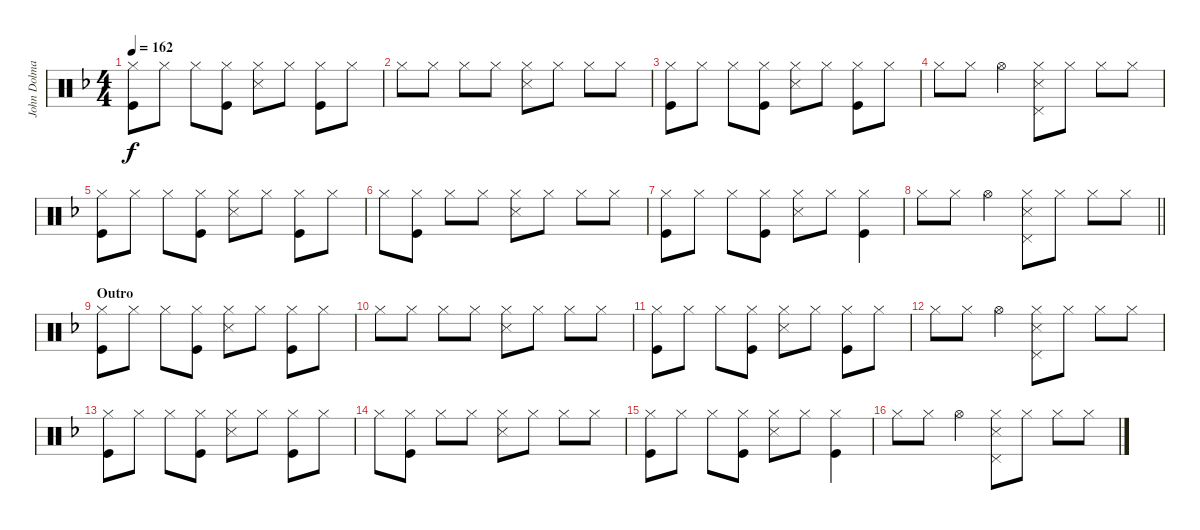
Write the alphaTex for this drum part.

\track ("John Dolmayan" "John Dolma") {instrument percussion}
\staff {score}
\articulation defaults
\ts (4 4)
\tempo 162
\clef neutral
\ks dminor
("Hi-Hat (closed)" "Kick (hit)").8{dy f} "Hi-Hat (closed)".8 "Hi-Hat (closed)".8 ("Hi-Hat (closed)" "Kick (hit)").8 ("Hi-Hat (closed)" "Snare (side stick) 3").8 "Hi-Hat (closed)".8 ("Hi-Hat (closed)" "Kick (hit)").8 "Hi-Hat (closed)".8 |
"Hi-Hat (closed)".8 "Hi-Hat (closed)".8 "Hi-Hat (closed)".8 "Hi-Hat (closed)".8 ("Hi-Hat (closed)" "Snare (side stick) 3").8 "Hi-Hat (closed)".8 "Hi-Hat (closed)".8 "Hi-Hat (closed)".8 |
("Hi-Hat (closed)" "Kick (hit)").8 "Hi-Hat (closed)".8 "Hi-Hat (closed)".8 ("Hi-Hat (closed)" "Kick (hit)").8 ("Hi-Hat (closed)" "Snare (side stick) 3").8 "Hi-Hat (closed)".8 ("Hi-Hat (closed)" "Kick (hit)").8 "Hi-Hat (closed)".8 |
"Hi-Hat (closed)".8 "Hi-Hat (closed)".8 "Hi-Hat (open)".4 ("Hi-Hat (closed)" "Pedal Hi-Hat (hit)" "Snare (side stick) 3").8 "Hi-Hat (closed)".8 "Hi-Hat (closed)".8 "Hi-Hat (closed)".8 |
("Hi-Hat (closed)" "Kick (hit)").8 "Hi-Hat (closed)".8 "Hi-Hat (closed)".8 ("Hi-Hat (closed)" "Kick (hit)").8 ("Hi-Hat (closed)" "Snare (side stick) 3").8 "Hi-Hat (closed)".8 ("Hi-Hat (closed)" "Kick (hit)").8 "Hi-Hat (closed)".8 |
"Hi-Hat (closed)".8 ("Hi-Hat (closed)" "Kick (hit)").8 "Hi-Hat (closed)".8 "Hi-Hat (closed)".8 ("Hi-Hat (closed)" "Snare (side stick) 3").8 "Hi-Hat (closed)".8 "Hi-Hat (closed)".8 "Hi-Hat (closed)".8 |
("Hi-Hat (closed)" "Kick (hit)").8 "Hi-Hat (closed)".8 "Hi-Hat (closed)".8 ("Hi-Hat (closed)" "Kick (hit)").8 ("Hi-Hat (closed)" "Snare (side stick) 3").8 "Hi-Hat (closed)".8 ("Hi-Hat (closed)" "Kick (hit)").4 |
\barLineRight lightlight "Hi-Hat (closed)".8 "Hi-Hat (closed)".8 "Hi-Hat (open)".4
("Hi-Hat (closed)" "Pedal Hi-Hat (hit)" "Snare (side stick) 3").8 "Hi-Hat (closed)".8 "Hi-Hat (closed)".8 "Hi-Hat (closed)".8 |
\section ("" "Outro")
("Hi-Hat (closed)" "Kick (hit)").8 "Hi-Hat (closed)".8 "Hi-Hat (closed)".8 ("Hi-Hat (closed)" "Kick (hit)").8 ("Hi-Hat (closed)" "Snare (side stick) 3").8 "Hi-Hat (closed)".8 ("Hi-Hat (closed)" "Kick (hit)").8 "Hi-Hat (closed)".8 |
"Hi-Hat (closed)".8 "Hi-Hat (closed)".8 "Hi-Hat (closed)".8 "Hi-Hat (closed)".8 ("Hi-Hat (closed)" "Snare (side stick) 3").8 "Hi-Hat (closed)".8 "Hi-Hat (closed)".8 "Hi-Hat (closed)".8 |
("Hi-Hat (closed)" "Kick (hit)").8 "Hi-Hat (closed)".8 "Hi-Hat (closed)".8 ("Hi-Hat (closed)" "Kick (hit)").8 ("Hi-Hat (closed)" "Snare (side stick) 3").8 "Hi-Hat (closed)".8 ("Hi-Hat (closed)" "Kick (hit)").8 "Hi-Hat (closed)".8 |
"Hi-Hat (closed)".8 "Hi-Hat (closed)".8 "Hi-Hat (open)".4 ("Hi-Hat (closed)" "Pedal Hi-Hat (hit)" "Snare (side stick) 3").8 "Hi-Hat (closed)".8 "Hi-Hat (closed)".8 "Hi-Hat (closed)".8 |
("Hi-Hat (closed)" "Kick (hit)").8 "Hi-Hat (closed)".8 "Hi-Hat (closed)".8 ("Hi-Hat (closed)" "Kick (hit)").8 ("Hi-Hat (closed)" "Snare (side stick) 3").8 "Hi-Hat (closed)".8 ("Hi-Hat (closed)" "Kick (hit)").8 "Hi-Hat (closed)".8 |
"Hi-Hat (closed)".8 ("Hi-Hat (closed)" "Kick (hit)").8 "Hi-Hat (closed)".8 "Hi-Hat (closed)".8 ("Hi-Hat (closed)" "Snare (side stick) 3").8 "Hi-Hat (closed)".8 "Hi-Hat (closed)".8 "Hi-Hat (closed)".8 |
("Hi-Hat (closed)" "Kick (hit)").8 "Hi-Hat (closed)".8 "Hi-Hat (closed)".8 ("Hi-Hat (closed)" "Kick (hit)").8 ("Hi-Hat (closed)" "Snare (side stick) 3").8 "Hi-Hat (closed)".8 ("Hi-Hat (closed)" "Kick (hit)").4 |
"Hi-Hat (closed)".8 "Hi-Hat (closed)".8 "Hi-Hat (open)".4 ("Hi-Hat (closed)" "Pedal Hi-Hat (hit)" "Snare (side stick) 3").8 "Hi-Hat (closed)".8 "Hi-Hat (closed)".8 "Hi-Hat (closed)".8
